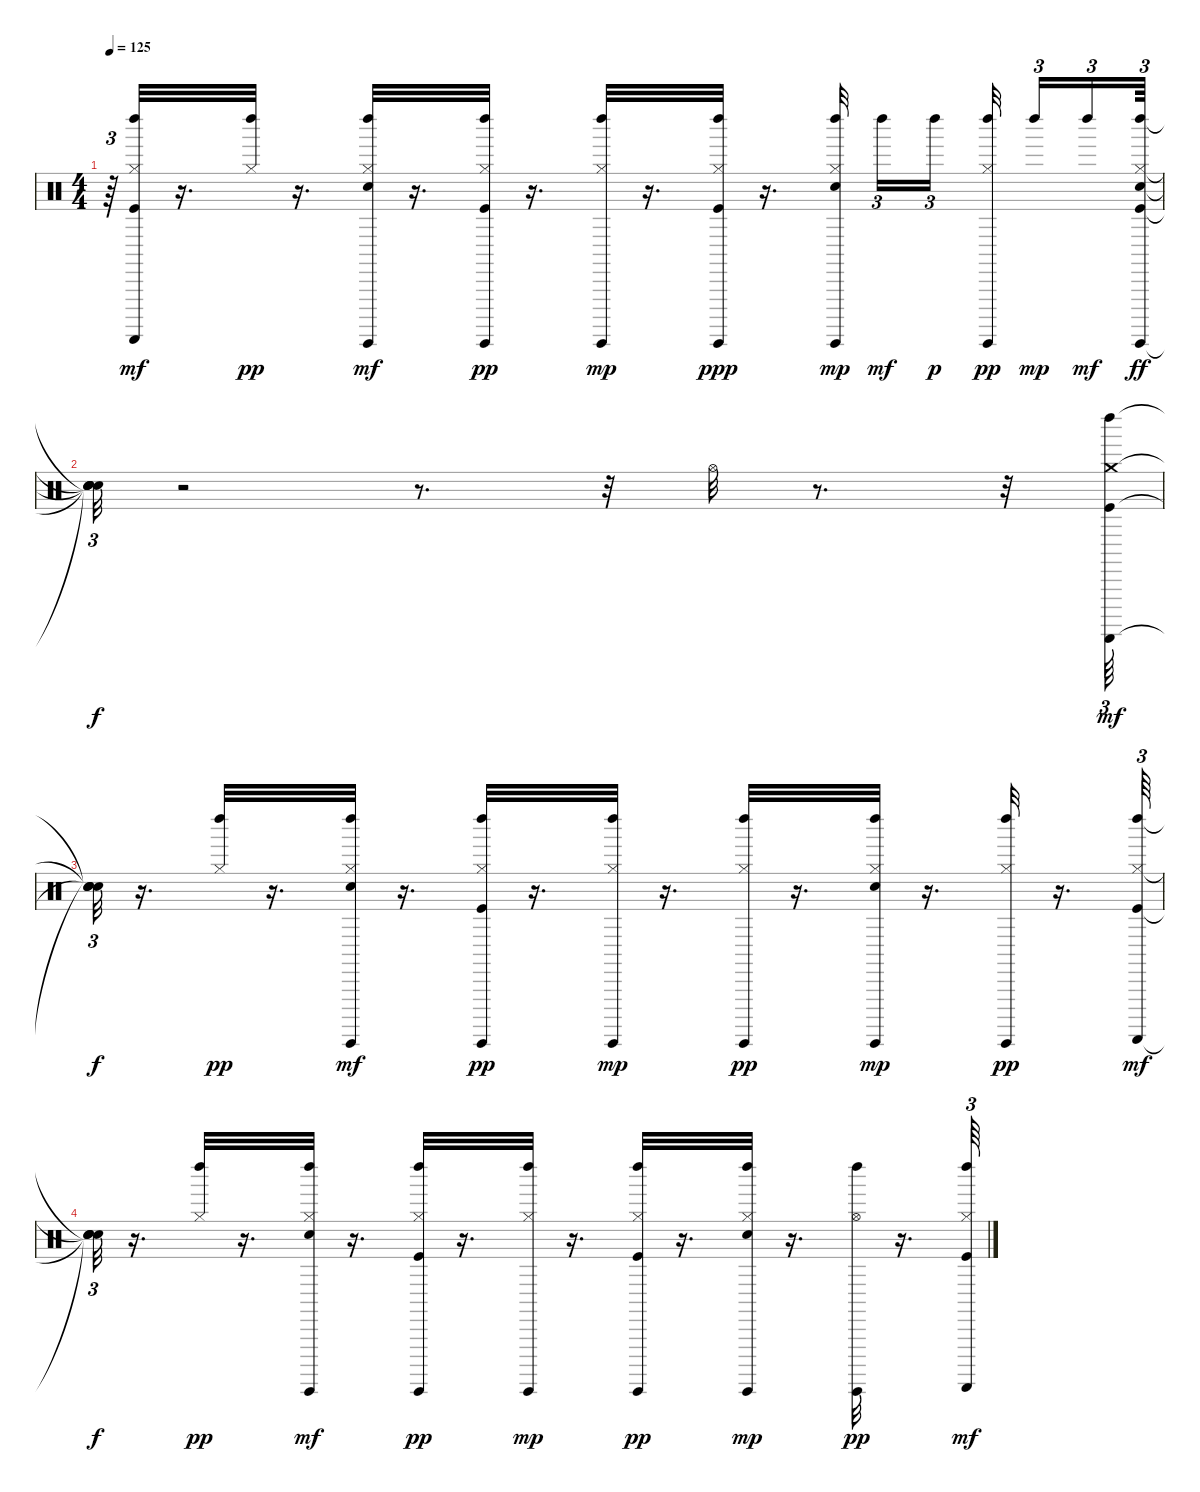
\track "" {instrument percussion}
\staff {score}
\articulation defaults
\ts (4 4)
\tempo 125
\clef neutral
\ks c
r.64{tu (3 2) dy pp} ("Left Maraca (hit)" "Kick (hit)" "Hi-Hat (closed)" "Guiro (scrap-return)").32{dy mf} r.16{d} ("Hi-Hat (closed)" "Left Maraca (hit)").32{dy pp} r.16{d} ("Left Maraca (hit)" "Hi-Hat (closed)" "Electric Snare (hit)" "Guiro (hit)").32{dy mf} r.16{d} ("Hi-Hat (closed)" "Left Maraca (hit)" "Kick (hit)" "Guiro (hit)").32{dy pp} r.16{d} ("Hi-Hat (closed)" "Left Maraca (hit)" "Guiro (hit)").32{dy mp} r.16{d} ("Left Maraca (hit)" "Kick (hit)" "Hi-Hat (closed)" "Guiro (hit)").32{dy ppp} r.16{d} ("Electric Snare (hit)" "Left Maraca (hit)" "Hi-Hat (closed)" "Guiro (hit)").32{dy mp beam splitsecondary} "Left Maraca (hit)".16{tu (3 2) dy mf} "Left Maraca (hit)".16{tu (3 2) dy p beam splitsecondary} ("Hi-Hat (closed)" "Left Maraca (hit)" "Guiro (hit)").32{dy pp beam splitsecondary} "Left Maraca (hit)".16{tu (3 2) dy mp} "Left Maraca (hit)".16{tu (3 2) dy mf} ("Left Maraca (hit)" "Guiro (hit)" "Electric Snare (hit)" "Kick (hit)" "Hi-Hat (closed)").64{tu (3 2) dy ff} |
("Snare (hit)"{t} "Snare (hit)"{t} "Snare (hit)"{t} "Snare (hit)"{t} "Snare (hit)"{t}).32{tu (3 2) dy f} r.2 r.8{d} r.32 "Hi-Hat (open)".32 r.8{d} r.32 ("Kick (hit)" "Left Maraca (hit)" "Crash medium (hit)" "Guiro (scrap-return)").64{tu (3 2) dy mf} |
("Snare (hit)"{t} "Snare (hit)"{t} "Snare (hit)"{t} "Snare (hit)"{t}).32{tu (3 2) dy f} r.16{d} ("Hi-Hat (closed)" "Left Maraca (hit)").32{dy pp} r.16{d} ("Hi-Hat (closed)" "Left Maraca (hit)" "Electric Snare (hit)" "Guiro (hit)").32{dy mf} r.16{d} ("Left Maraca (hit)" "Kick (hit)" "Hi-Hat (closed)" "Guiro (hit)").32{dy pp} r.16{d} ("Left Maraca (hit)" "Hi-Hat (closed)" "Guiro (hit)").32{dy mp} r.16{d} ("Hi-Hat (closed)" "Left Maraca (hit)" "Guiro (hit)").32{dy pp} r.16{d} ("Electric Snare (hit)" "Hi-Hat (closed)" "Left Maraca (hit)" "Guiro (hit)").32{dy mp} r.16{d} ("Hi-Hat (closed)" "Left Maraca (hit)" "Guiro (hit)").32{dy pp} r.16{d} ("Left Maraca (hit)" "Kick (hit)" "Hi-Hat (closed)" "Guiro (scrap-return)").64{tu (3 2) dy mf} |
("Snare (hit)"{t} "Snare (hit)"{t} "Snare (hit)"{t} "Snare (hit)"{t}).32{tu (3 2) dy f} r.16{d} ("Hi-Hat (closed)" "Left Maraca (hit)").32{dy pp} r.16{d} ("Left Maraca (hit)" "Hi-Hat (closed)" "Electric Snare (hit)" "Guiro (hit)").32{dy mf} r.16{d} ("Kick (hit)" "Hi-Hat (closed)" "Left Maraca (hit)" "Guiro (hit)").32{dy pp} r.16{d} ("Hi-Hat (closed)" "Left Maraca (hit)" "Guiro (hit)").32{dy mp} r.16{d} ("Kick (hit)" "Left Maraca (hit)" "Hi-Hat (closed)" "Guiro (hit)").32{dy pp} r.16{d} ("Electric Snare (hit)" "Hi-Hat (closed)" "Left Maraca (hit)" "Guiro (hit)").32{dy mp} r.16{d} ("Left Maraca (hit)" "Hi-Hat (open)" "Guiro (hit)").32{dy pp} r.16{d} ("Kick (hit)" "Hi-Hat (closed)" "Left Maraca (hit)" "Guiro (scrap-return)").64{tu (3 2) dy mf}
